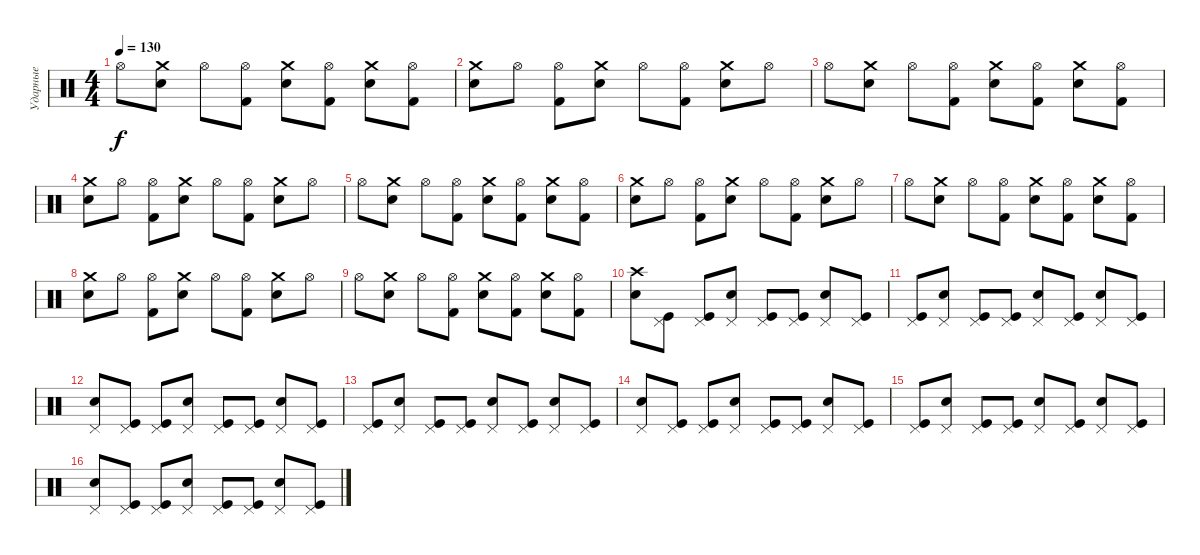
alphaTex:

\track ("Ударные" "Ударные") {instrument percussion}
\staff {score}
\articulation defaults
\ts (4 4)
\tempo 130
\clef neutral
\ks c "Hi-Hat (open)".8{dy f}
("Crash medium (hit)" "Snare (hit) 2").8 "Hi-Hat (open)".8 ("Hi-Hat (open)" "Kick (hit) 2").8 ("Crash medium (hit)" "Snare (hit) 2").8 ("Hi-Hat (open)" "Kick (hit) 2").8 ("Crash medium (hit)" "Snare (hit) 2").8 ("Hi-Hat (open)" "Kick (hit) 2").8 |
("Crash medium (hit)" "Snare (hit) 2").8 "Hi-Hat (open)".8 ("Hi-Hat (open)" "Kick (hit) 2").8 ("Crash medium (hit)" "Snare (hit) 2").8 "Hi-Hat (open)".8 ("Hi-Hat (open)" "Kick (hit) 2").8 ("Crash medium (hit)" "Snare (hit) 2").8 "Hi-Hat (open)".8 |
"Hi-Hat (open)".8 ("Crash medium (hit)" "Snare (hit) 2").8 "Hi-Hat (open)".8 ("Hi-Hat (open)" "Kick (hit) 2").8 ("Crash medium (hit)" "Snare (hit) 2").8 ("Hi-Hat (open)" "Kick (hit) 2").8 ("Crash medium (hit)" "Snare (hit) 2").8 ("Hi-Hat (open)" "Kick (hit) 2").8 |
("Crash medium (hit)" "Snare (hit) 2").8 "Hi-Hat (open)".8 ("Hi-Hat (open)" "Kick (hit) 2").8 ("Crash medium (hit)" "Snare (hit) 2").8 "Hi-Hat (open)".8 ("Hi-Hat (open)" "Kick (hit) 2").8 ("Crash medium (hit)" "Snare (hit) 2").8 "Hi-Hat (open)".8 |
"Hi-Hat (open)".8 ("Crash medium (hit)" "Snare (hit) 2").8 "Hi-Hat (open)".8 ("Hi-Hat (open)" "Kick (hit) 2").8 ("Crash medium (hit)" "Snare (hit) 2").8 ("Hi-Hat (open)" "Kick (hit) 2").8 ("Crash medium (hit)" "Snare (hit) 2").8 ("Hi-Hat (open)" "Kick (hit) 2").8 |
("Crash medium (hit)" "Snare (hit) 2").8 "Hi-Hat (open)".8 ("Hi-Hat (open)" "Kick (hit) 2").8 ("Crash medium (hit)" "Snare (hit) 2").8 "Hi-Hat (open)".8 ("Hi-Hat (open)" "Kick (hit) 2").8 ("Crash medium (hit)" "Snare (hit) 2").8 "Hi-Hat (open)".8 |
"Hi-Hat (open)".8 ("Crash medium (hit)" "Snare (hit) 2").8 "Hi-Hat (open)".8 ("Hi-Hat (open)" "Kick (hit) 2").8 ("Crash medium (hit)" "Snare (hit) 2").8 ("Hi-Hat (open)" "Kick (hit) 2").8 ("Crash medium (hit)" "Snare (hit) 2").8 ("Hi-Hat (open)" "Kick (hit) 2").8 |
("Crash medium (hit)" "Snare (hit) 2").8 "Hi-Hat (open)".8 ("Hi-Hat (open)" "Kick (hit) 2").8 ("Crash medium (hit)" "Snare (hit) 2").8 "Hi-Hat (open)".8 ("Hi-Hat (open)" "Kick (hit) 2").8 ("Crash medium (hit)" "Snare (hit) 2").8 "Hi-Hat (open)".8 |
"Hi-Hat (open)".8 ("Crash medium (hit)" "Snare (hit) 2").8 "Hi-Hat (open)".8 ("Hi-Hat (open)" "Kick (hit) 2").8 ("Crash medium (hit)" "Snare (hit) 2").8 ("Hi-Hat (open)" "Kick (hit) 2").8 ("Crash medium (hit)" "Snare (hit) 2").8 ("Hi-Hat (open)" "Kick (hit) 2").8 |
("Crash high (hit)" "Electric Snare (hit)").8 ("Pedal Hi-Hat (hit)" "Kick (hit)").8 ("Pedal Hi-Hat (hit)" "Kick (hit)").8 ("Pedal Hi-Hat (hit)" "Electric Snare (hit)").8 ("Pedal Hi-Hat (hit)" "Kick (hit)").8 ("Pedal Hi-Hat (hit)" "Kick (hit)").8 ("Pedal Hi-Hat (hit)" "Electric Snare (hit)").8 ("Pedal Hi-Hat (hit)" "Kick (hit)").8 |
("Pedal Hi-Hat (hit)" "Kick (hit)").8 ("Pedal Hi-Hat (hit)" "Electric Snare (hit)").8 ("Pedal Hi-Hat (hit)" "Kick (hit)").8 ("Pedal Hi-Hat (hit)" "Kick (hit)").8 ("Pedal Hi-Hat (hit)" "Electric Snare (hit)").8 ("Pedal Hi-Hat (hit)" "Kick (hit)").8 ("Pedal Hi-Hat (hit)" "Electric Snare (hit)").8 ("Pedal Hi-Hat (hit)" "Kick (hit)").8 |
("Pedal Hi-Hat (hit)" "Electric Snare (hit)").8 ("Pedal Hi-Hat (hit)" "Kick (hit)").8 ("Pedal Hi-Hat (hit)" "Kick (hit)").8 ("Pedal Hi-Hat (hit)" "Electric Snare (hit)").8 ("Pedal Hi-Hat (hit)" "Kick (hit)").8 ("Pedal Hi-Hat (hit)" "Kick (hit)").8 ("Pedal Hi-Hat (hit)" "Electric Snare (hit)").8 ("Pedal Hi-Hat (hit)" "Kick (hit)").8 |
("Pedal Hi-Hat (hit)" "Kick (hit)").8 ("Pedal Hi-Hat (hit)" "Electric Snare (hit)").8 ("Pedal Hi-Hat (hit)" "Kick (hit)").8 ("Pedal Hi-Hat (hit)" "Kick (hit)").8 ("Pedal Hi-Hat (hit)" "Electric Snare (hit)").8 ("Pedal Hi-Hat (hit)" "Kick (hit)").8 ("Pedal Hi-Hat (hit)" "Electric Snare (hit)").8 ("Pedal Hi-Hat (hit)" "Kick (hit)").8 |
("Pedal Hi-Hat (hit)" "Electric Snare (hit)").8 ("Pedal Hi-Hat (hit)" "Kick (hit)").8 ("Pedal Hi-Hat (hit)" "Kick (hit)").8 ("Pedal Hi-Hat (hit)" "Electric Snare (hit)").8 ("Pedal Hi-Hat (hit)" "Kick (hit)").8 ("Pedal Hi-Hat (hit)" "Kick (hit)").8 ("Pedal Hi-Hat (hit)" "Electric Snare (hit)").8 ("Pedal Hi-Hat (hit)" "Kick (hit)").8 |
("Pedal Hi-Hat (hit)" "Kick (hit)").8 ("Pedal Hi-Hat (hit)" "Electric Snare (hit)").8 ("Pedal Hi-Hat (hit)" "Kick (hit)").8 ("Pedal Hi-Hat (hit)" "Kick (hit)").8 ("Pedal Hi-Hat (hit)" "Electric Snare (hit)").8 ("Pedal Hi-Hat (hit)" "Kick (hit)").8 ("Pedal Hi-Hat (hit)" "Electric Snare (hit)").8 ("Pedal Hi-Hat (hit)" "Kick (hit)").8 |
("Pedal Hi-Hat (hit)" "Electric Snare (hit)").8 ("Pedal Hi-Hat (hit)" "Kick (hit)").8 ("Pedal Hi-Hat (hit)" "Kick (hit)").8 ("Pedal Hi-Hat (hit)" "Electric Snare (hit)").8 ("Pedal Hi-Hat (hit)" "Kick (hit)").8 ("Pedal Hi-Hat (hit)" "Kick (hit)").8 ("Pedal Hi-Hat (hit)" "Electric Snare (hit)").8 ("Pedal Hi-Hat (hit)" "Kick (hit)").8
